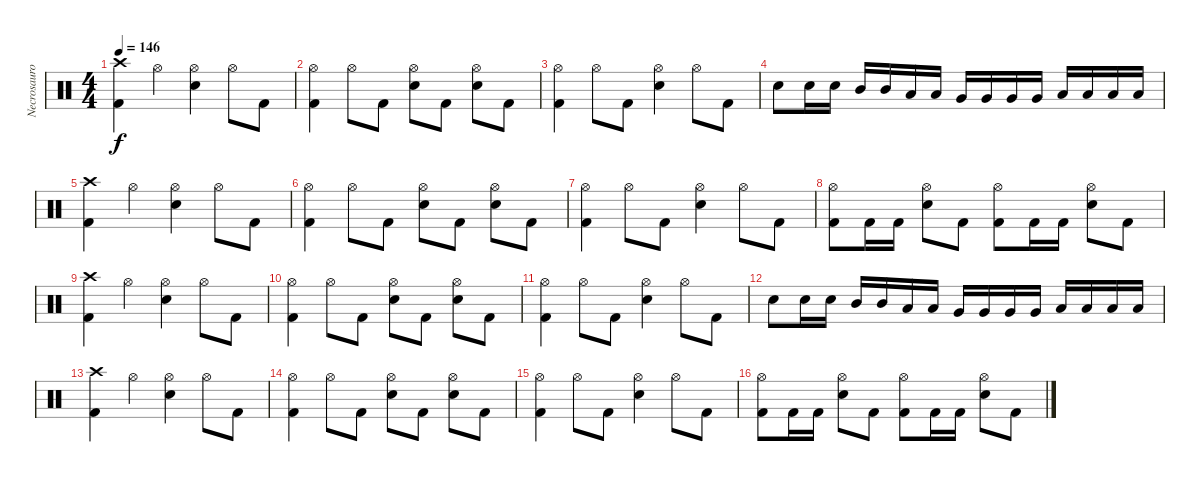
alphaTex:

\track ("Necrosauron" "Necrosauro") {instrument percussion}
\staff {score}
\articulation defaults
\ts (4 4)
\tempo 146
\clef neutral
\ks c
("Crash high (hit)" "Kick (hit) 2").4{dy f} "Hi-Hat (open)".4 ("Hi-Hat (open)" "Snare (hit) 2").4 "Hi-Hat (open)".8 "Kick (hit) 2".8 |
("Hi-Hat (open)" "Kick (hit) 2").4 "Hi-Hat (open)".8 "Kick (hit) 2".8 ("Hi-Hat (open)" "Snare (hit) 2").8 "Kick (hit) 2".8 ("Hi-Hat (open)" "Snare (hit) 2").8 "Kick (hit) 2".8 |
("Hi-Hat (open)" "Kick (hit) 2").4 "Hi-Hat (open)".8 "Kick (hit) 2".8 ("Hi-Hat (open)" "Snare (hit) 2").4 "Hi-Hat (open)".8 "Kick (hit) 2".8 |
"Snare (hit) 2".8 "Snare (hit) 2".16 "Snare (hit) 2".16 "Mid Tom (hit)".16 "Mid Tom (hit)".16 "Low Tom (hit)".16 "Low Tom (hit)".16 "Very Low Tom (hit)".16 "Very Low Tom (hit)".16 "Very Low Tom (hit)".16 "Very Low Tom (hit)".16 "Low Floor Tom (hit)".16 "Low Floor Tom (hit)".16 "Low Floor Tom (hit)".16 "Low Floor Tom (hit)".16 |
("Crash high (hit)" "Kick (hit) 2").4{volume 11} "Hi-Hat (open)".4 ("Hi-Hat (open)" "Snare (hit) 2").4 "Hi-Hat (open)".8 "Kick (hit) 2".8 |
("Hi-Hat (open)" "Kick (hit) 2").4 "Hi-Hat (open)".8 "Kick (hit) 2".8 ("Hi-Hat (open)" "Snare (hit) 2").8 "Kick (hit) 2".8 ("Hi-Hat (open)" "Snare (hit) 2").8 "Kick (hit) 2".8 |
("Hi-Hat (open)" "Kick (hit) 2").4 "Hi-Hat (open)".8 "Kick (hit) 2".8 ("Hi-Hat (open)" "Snare (hit) 2").4 "Hi-Hat (open)".8 "Kick (hit) 2".8 |
("Hi-Hat (open)" "Kick (hit) 2").8 "Kick (hit) 2".16 "Kick (hit) 2".16 ("Hi-Hat (open)" "Snare (hit) 2").8 "Kick (hit) 2".8 ("Hi-Hat (open)" "Kick (hit) 2").8 "Kick (hit) 2".16 "Kick (hit) 2".16 ("Hi-Hat (open)" "Snare (hit) 2").8 "Kick (hit) 2".8 |
("Crash high (hit)" "Kick (hit) 2").4{volume 9} "Hi-Hat (open)".4 ("Hi-Hat (open)" "Snare (hit) 2").4 "Hi-Hat (open)".8 "Kick (hit) 2".8 |
("Hi-Hat (open)" "Kick (hit) 2").4 "Hi-Hat (open)".8 "Kick (hit) 2".8 ("Hi-Hat (open)" "Snare (hit) 2").8 "Kick (hit) 2".8 ("Hi-Hat (open)" "Snare (hit) 2").8 "Kick (hit) 2".8 |
("Hi-Hat (open)" "Kick (hit) 2").4 "Hi-Hat (open)".8 "Kick (hit) 2".8 ("Hi-Hat (open)" "Snare (hit) 2").4 "Hi-Hat (open)".8 "Kick (hit) 2".8 |
"Snare (hit) 2".8 "Snare (hit) 2".16 "Snare (hit) 2".16 "Mid Tom (hit)".16 "Mid Tom (hit)".16 "Low Tom (hit)".16 "Low Tom (hit)".16 "Very Low Tom (hit)".16 "Very Low Tom (hit)".16 "Very Low Tom (hit)".16 "Very Low Tom (hit)".16 "Low Floor Tom (hit)".16 "Low Floor Tom (hit)".16 "Low Floor Tom (hit)".16 "Low Floor Tom (hit)".16 |
("Crash high (hit)" "Kick (hit) 2").4{volume 7} "Hi-Hat (open)".4 ("Hi-Hat (open)" "Snare (hit) 2").4 "Hi-Hat (open)".8 "Kick (hit) 2".8 |
("Hi-Hat (open)" "Kick (hit) 2").4 "Hi-Hat (open)".8 "Kick (hit) 2".8 ("Hi-Hat (open)" "Snare (hit) 2").8 "Kick (hit) 2".8 ("Hi-Hat (open)" "Snare (hit) 2").8 "Kick (hit) 2".8 |
("Hi-Hat (open)" "Kick (hit) 2").4 "Hi-Hat (open)".8 "Kick (hit) 2".8 ("Hi-Hat (open)" "Snare (hit) 2").4 "Hi-Hat (open)".8 "Kick (hit) 2".8 |
("Hi-Hat (open)" "Kick (hit) 2").8 "Kick (hit) 2".16 "Kick (hit) 2".16 ("Hi-Hat (open)" "Snare (hit) 2").8 "Kick (hit) 2".8 ("Hi-Hat (open)" "Kick (hit) 2").8 "Kick (hit) 2".16 "Kick (hit) 2".16 ("Hi-Hat (open)" "Snare (hit) 2").8 "Kick (hit) 2".8
